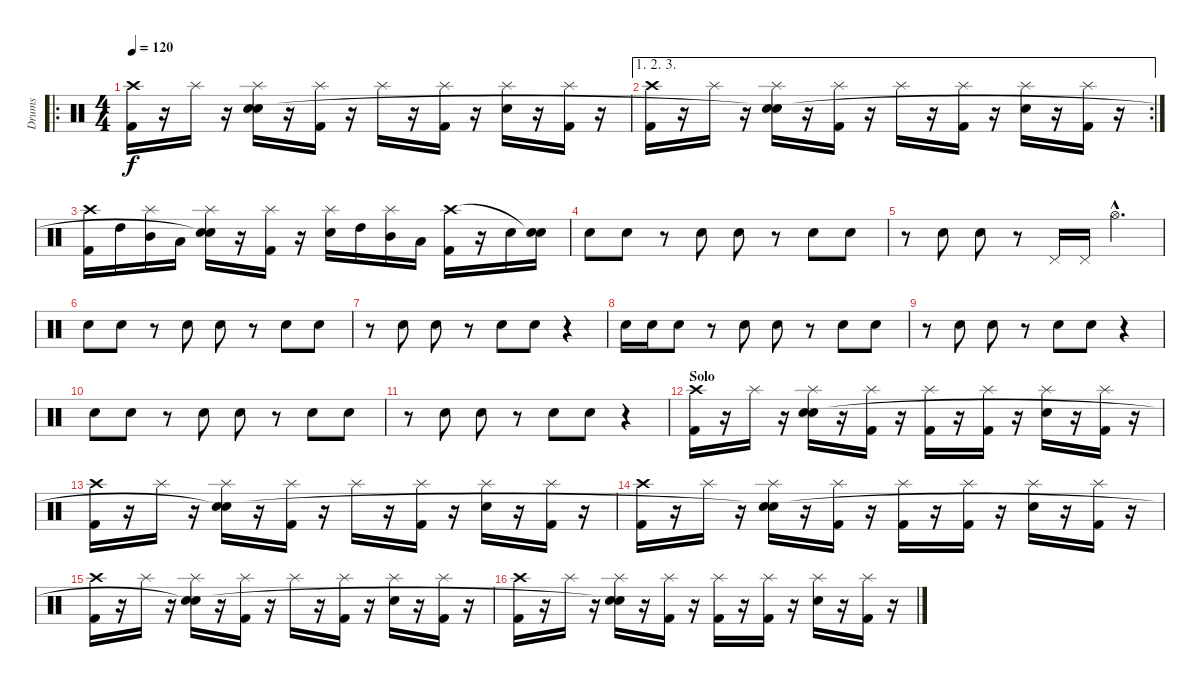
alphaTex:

\track ("Drums" "Drums") {instrument percussion}
\staff {score}
\articulation defaults
\ro
\ts (4 4)
\tempo 120
\clef neutral
\ks c
("Kick (hit) 2" "Crash high (hit)").16{dy f} r.16 "Splash (hit)".16 r.16 ("Snare (hit) 2" "Splash (hit)" "Snare (hit)"{t}).16 r.16 ("Kick (hit) 2" "Splash (hit)").16 r.16 "Splash (hit)".16 r.16 ("Kick (hit) 2" "Splash (hit)").16 r.16 ("Snare (hit) 2" "Splash (hit)").16 r.16 ("Kick (hit) 2" "Splash (hit)").16 r.16 |
\ae (1 2 3)
\rc 2
("Kick (hit) 2" "Crash high (hit)").16 r.16 "Splash (hit)".16 r.16 ("Snare (hit) 2" "Splash (hit)" "Snare (hit)"{t}).16 r.16 ("Kick (hit) 2" "Splash (hit)").16 r.16 "Splash (hit)".16 r.16 ("Kick (hit) 2" "Splash (hit)").16 r.16 ("Snare (hit) 2" "Splash (hit)").16 r.16 ("Kick (hit) 2" "Splash (hit)").16 r.16 |
("Kick (hit) 2" "Crash high (hit)").16 "High Tom (hit)".16 ("Mid Tom (hit)" "Splash (hit)").16 "Low Tom (hit)".16 ("Snare (hit) 2" "Splash (hit)" "Snare (hit)"{t}).16 r.16 ("Kick (hit) 2" "Splash (hit)").16 r.16 ("Snare (hit) 2" "Splash (hit)").16 "High Tom (hit)".16 ("Mid Tom (hit)" "Splash (hit)").16 "Low Tom (hit)".16 ("Kick (hit) 2" "Crash high (hit)").16 r.16 "Snare (hit) 2".16 ("Snare (hit) 2" "Snare (hit)"{t}).16 |
"Snare (hit) 2".8 "Snare (hit) 2".8 r.8 "Snare (hit) 2".8 "Snare (hit) 2".8 r.8 "Snare (hit) 2".8 "Snare (hit) 2".8 |
r.8 "Snare (hit) 2".8 "Snare (hit) 2".8 r.8 "Pedal Hi-Hat (hit)".16 "Pedal Hi-Hat (hit)".16 "Hi-Hat (open)"{hac}.4{d} |
"Snare (hit) 2".8 "Snare (hit) 2".8 r.8 "Snare (hit) 2".8 "Snare (hit) 2".8 r.8 "Snare (hit) 2".8 "Snare (hit) 2".8 |
r.8 "Snare (hit) 2".8 "Snare (hit) 2".8 r.8 "Snare (hit) 2".8 "Snare (hit) 2".8 r.4 |
"Snare (hit) 2".16 "Snare (hit) 2".16 "Snare (hit) 2".8 r.8 "Snare (hit) 2".8 "Snare (hit) 2".8 r.8 "Snare (hit) 2".8 "Snare (hit) 2".8 |
r.8 "Snare (hit) 2".8 "Snare (hit) 2".8 r.8 "Snare (hit) 2".8 "Snare (hit) 2".8 r.4 |
"Snare (hit) 2".8 "Snare (hit) 2".8 r.8 "Snare (hit) 2".8 "Snare (hit) 2".8 r.8 "Snare (hit) 2".8 "Snare (hit) 2".8 |
r.8 "Snare (hit) 2".8 "Snare (hit) 2".8 r.8 "Snare (hit) 2".8 "Snare (hit) 2".8 r.4 |
\section ("" "Solo")
("Kick (hit) 2" "Crash high (hit)").16{volume 10} r.16 "Splash (hit)".16 r.16 ("Snare (hit) 2" "Splash (hit)" "Snare (hit)").16 r.16 ("Kick (hit) 2" "Splash (hit)").16 r.16 ("Kick (hit) 2" "Splash (hit)").16 r.16 ("Kick (hit) 2" "Splash (hit)").16 r.16 ("Snare (hit) 2" "Splash (hit)").16 r.16 ("Kick (hit) 2" "Splash (hit)").16 r.16 |
("Kick (hit) 2" "Crash high (hit)").16 r.16 "Splash (hit)".16 r.16 ("Snare (hit) 2" "Splash (hit)" "Snare (hit)"{t}).16 r.16 ("Kick (hit) 2" "Splash (hit)").16 r.16 "Splash (hit)".16 r.16 ("Kick (hit) 2" "Splash (hit)").16 r.16 ("Snare (hit) 2" "Splash (hit)").16 r.16 ("Kick (hit) 2" "Splash (hit)").16 r.16 |
("Kick (hit) 2" "Crash high (hit)").16 r.16 "Splash (hit)".16 r.16 ("Snare (hit) 2" "Splash (hit)" "Snare (hit)"{t}).16 r.16 ("Kick (hit) 2" "Splash (hit)").16 r.16 ("Kick (hit) 2" "Splash (hit)").16 r.16 ("Kick (hit) 2" "Splash (hit)").16 r.16 ("Snare (hit) 2" "Splash (hit)").16 r.16 ("Kick (hit) 2" "Splash (hit)").16 r.16 |
("Kick (hit) 2" "Crash high (hit)").16 r.16 "Splash (hit)".16 r.16 ("Snare (hit) 2" "Splash (hit)" "Snare (hit)"{t}).16 r.16 ("Kick (hit) 2" "Splash (hit)").16 r.16 "Splash (hit)".16 r.16 ("Kick (hit) 2" "Splash (hit)").16 r.16 ("Snare (hit) 2" "Splash (hit)").16 r.16 ("Kick (hit) 2" "Splash (hit)").16 r.16 |
("Kick (hit) 2" "Crash high (hit)").16 r.16 "Splash (hit)".16 r.16 ("Snare (hit) 2" "Splash (hit)" "Snare (hit)"{t}).16 r.16 ("Kick (hit) 2" "Splash (hit)").16 r.16 ("Kick (hit) 2" "Splash (hit)").16 r.16 ("Kick (hit) 2" "Splash (hit)").16 r.16 ("Snare (hit) 2" "Splash (hit)").16 r.16 ("Kick (hit) 2" "Splash (hit)").16 r.16
